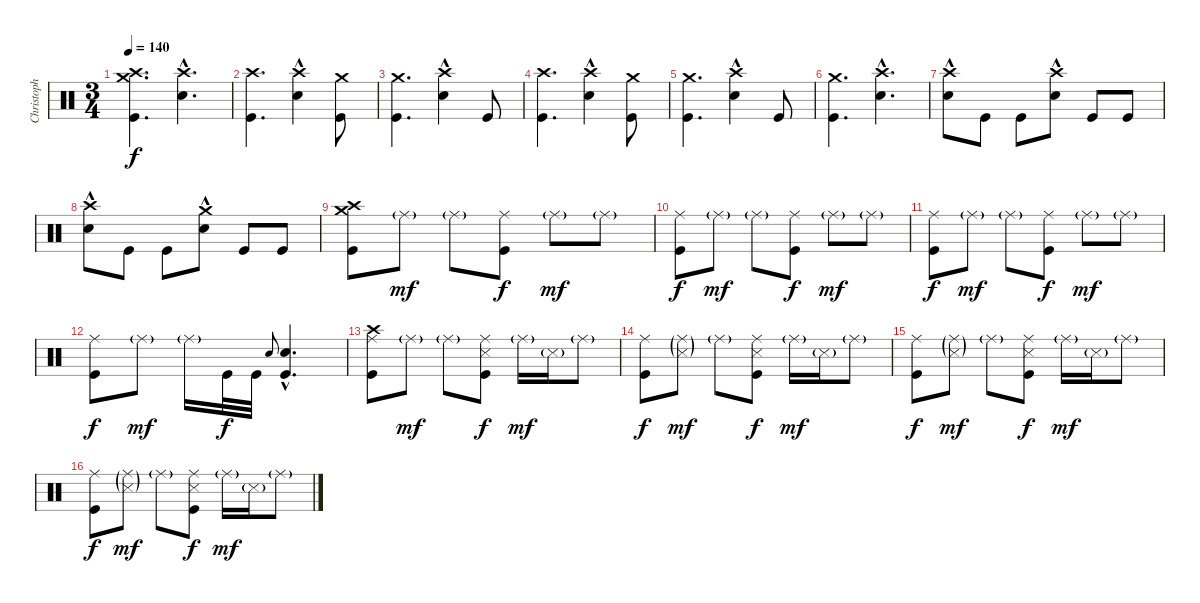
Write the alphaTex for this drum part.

\track ("Christoph \"Doom\" Schneider" "Christoph ") {instrument percussion}
\staff {score}
\articulation defaults
\ts (3 4)
\tempo 140
\clef neutral
\ks c
("Crash high (hit)" "Kick (hit)" "Crash medium (hit)").4{d dy f} ("Crash high (hit)" "Snare (hit) 2"{hac}).4{d} |
("Crash high (hit)" "Kick (hit)").4{d} ("Crash high (hit)" "Snare (hit) 2"{hac}).4 ("Crash medium (hit)" "Kick (hit)").8 |
("Kick (hit)" "Crash medium (hit)").4{d} ("Crash high (hit)" "Snare (hit) 2"{hac}).4 "Kick (hit)".8 |
("Crash high (hit)" "Kick (hit)").4{d} ("Crash high (hit)" "Snare (hit) 2"{hac}).4 ("Crash medium (hit)" "Kick (hit)").8 |
("Kick (hit)" "Crash medium (hit)").4{d} ("Crash high (hit)" "Snare (hit) 2"{hac}).4 "Kick (hit)".8 |
("Kick (hit)" "Crash medium (hit)").4{d} ("Crash high (hit)" "Snare (hit) 2"{hac}).4{d} |
("Crash high (hit)" "Snare (hit) 2"{hac}).8 "Kick (hit)".8 "Kick (hit)".8 ("Crash high (hit)" "Snare (hit) 2"{hac}).8 "Kick (hit)".8 "Kick (hit)".8 |
("Crash high (hit)" "Snare (hit) 2"{hac}).8 "Kick (hit)".8 "Kick (hit)".8 ("Crash medium (hit)" "Snare (hit) 2"{hac}).8 "Kick (hit)".8 "Kick (hit)".8 |
("Crash high (hit)" "Kick (hit)" "Crash medium (hit)").8 "Ride (middle)"{g}.8{dy mf} "Ride (middle)"{g}.8 ("Ride (middle)" "Kick (hit)").8{dy f} "Ride (middle)"{g}.8{dy mf} "Ride (middle)"{g}.8 |
("Ride (middle)" "Kick (hit)").8{dy f} "Ride (middle)"{g}.8{dy mf} "Ride (middle)"{g}.8 ("Ride (middle)" "Kick (hit)").8{dy f} "Ride (middle)"{g}.8{dy mf} "Ride (middle)"{g}.8 |
("Ride (middle)" "Kick (hit)").8{dy f} "Ride (middle)"{g}.8{dy mf} "Ride (middle)"{g}.8 ("Ride (middle)" "Kick (hit)").8{dy f} "Ride (middle)"{g}.8{dy mf} "Ride (middle)"{g}.8 |
("Ride (middle)" "Kick (hit)").8{dy f} "Ride (middle)"{g}.8{dy mf} "Ride (middle)"{g}.16 "Kick (hit)".32{dy f} "Kick (hit)".32 "Snare (hit)".8{gr onbeat} ("Kick (hit)" "Snare (hit) 2"{hac}).4{d} |
("Ride (middle)" "Kick (hit)" "Crash high (hit)").8 "Ride (middle)"{g}.8{dy mf} "Ride (middle)"{g}.8 ("Ride (middle)" "Kick (hit)" "Snare (side stick) 3").8{dy f} "Ride (middle)"{g}.16{dy mf} "Snare (side stick) 3"{g}.16 "Ride (middle)"{g}.8 |
("Ride (middle)" "Kick (hit)").8{dy f} ("Ride (middle)"{g} "Snare (side stick) 3"{g}).8{dy mf} "Ride (middle)"{g}.8 ("Ride (middle)" "Kick (hit)" "Snare (side stick) 3").8{dy f} "Ride (middle)"{g}.16{dy mf} "Snare (side stick) 3"{g}.16 "Ride (middle)"{g}.8 |
("Ride (middle)" "Kick (hit)").8{dy f} ("Ride (middle)"{g} "Snare (side stick) 3"{g}).8{dy mf} "Ride (middle)"{g}.8 ("Ride (middle)" "Kick (hit)" "Snare (side stick) 3").8{dy f} "Ride (middle)"{g}.16{dy mf} "Snare (side stick) 3"{g}.16 "Ride (middle)"{g}.8 |
("Ride (middle)" "Kick (hit)").8{dy f} ("Ride (middle)"{g} "Snare (side stick) 3"{g}).8{dy mf} "Ride (middle)"{g}.8 ("Ride (middle)" "Kick (hit)" "Snare (side stick) 3").8{dy f} "Ride (middle)"{g}.16{dy mf} "Snare (side stick) 3"{g}.16 "Ride (middle)"{g}.8
